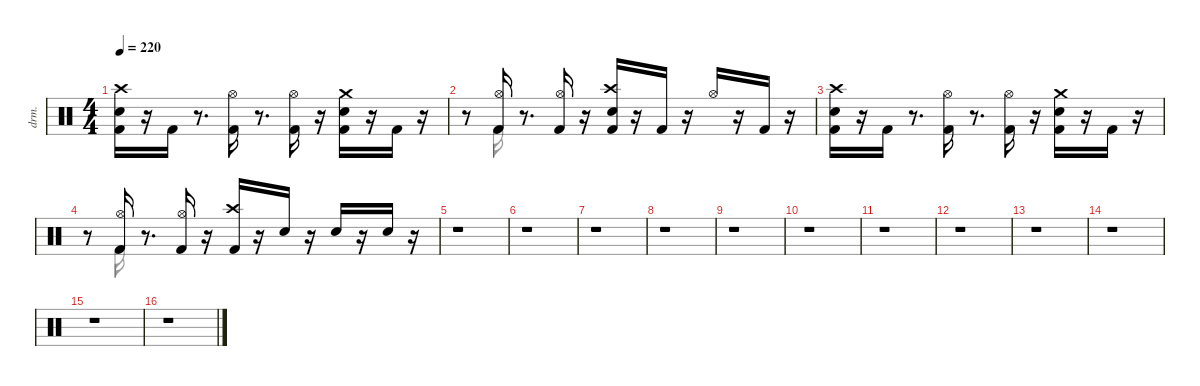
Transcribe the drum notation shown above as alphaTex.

\defaultSystemsLayout 4
\hideDynamics
\bracketExtendMode nobrackets
\otherSystemsTrackNameOrientation horizontal
\track ("EZdrummer 3" "drm.") {instrument percussion}
\staff {score}
\articulation defaults
\voice
\ts (4 4)
\tempo 220
\clef neutral
\ks c
("Kick (hit) 2" "Snare (hit) 2" "Crash high (hit)"{acc #}).16{dy ff beam Down} r.16{beam Down} "Kick (hit) 2".16{dy f beam Up} r.8{d beam Up} ("Kick (hit) 2" "Hi-Hat (open)"{acc #}).16{dy mf beam Down} r.8{d beam Down} ("Kick (hit) 2" "Hi-Hat (open)"{acc #}).16{dy f beam Down} r.16{beam Down} ("Kick (hit) 2" "Snare (hit) 2" "Crash medium (hit)").16{dy fff beam Down} r.16{beam Down} "Kick (hit) 2".16{dy f beam Up} r.16{beam Up} |
r.8{beam Up} ("Kick (hit) 2" "Hi-Hat (open)"{acc #}).16{dy mf beam Up} r.8{d beam Up} ("Kick (hit) 2" "Hi-Hat (open)"{acc #}).16{dy f beam Up} r.16{beam Up} ("Kick (hit) 2" "Snare (hit) 2" "Crash high (hit)"{acc #}).16{dy fff beam Up} r.16{beam Up} "Kick (hit) 2".16{dy f beam Up} r.16{beam Up} "Hi-Hat (open)"{acc #}.16{dy ff beam Up} r.16{beam Up} "Kick (hit) 2".16{dy mf beam Up} r.16{beam Up} |
("Kick (hit) 2" "Snare (hit) 2" "Crash high (hit)"{acc #}).16{dy ff beam Down} r.16{beam Down} "Kick (hit) 2".16{dy f beam Up} r.8{d beam Up} ("Kick (hit) 2" "Hi-Hat (open)"{acc #}).16{dy ff beam Down} r.8{d beam Down} ("Kick (hit) 2" "Hi-Hat (open)"{acc #}).16{dy f beam Down} r.16{beam Down} ("Crash medium (hit)" "Kick (hit) 2" "Snare (hit) 2").16{dy fff beam Down} r.16{beam Down} "Kick (hit) 2".16{dy f beam Up} r.16{beam Up} |
r.8{beam Up} ("Kick (hit) 2" "Hi-Hat (open)"{acc #}).16{dy mf beam Up} r.8{d beam Up} ("Kick (hit) 2" "Hi-Hat (open)"{acc #}).16{dy f beam Up} r.16{beam Up} ("Kick (hit) 2" "Crash high (hit)"{acc #}).16{dy fff beam Up} r.16{beam Up} "Snare (hit) 2".16{dy f beam Up} r.16{beam Up} "Snare (hit) 2".16{dy fff beam Up} r.16{beam Up} "Snare (hit) 2".16{beam Up} r.16{beam Up} |
r.1{beam Down} |
r.1{beam Down} |
r.1{beam Down} |
r.1{beam Down} |
r.1{beam Down} |
r.1{beam Down} |
r.1{beam Down} |
r.1{beam Down} |
r.1{beam Down} |
r.1{beam Down} |
r.1{beam Down} |
r.1{beam Down}
\voice
\clef neutral
\ottava regular
\simile none
\ks c
|
r.8{beam Down} "Kick (hit) 2".16{beam Down} |
|
r.8{beam Down} "Kick (hit) 2".16{beam Down} |
|
|
|
|
|
|
|
|
|
|
|
